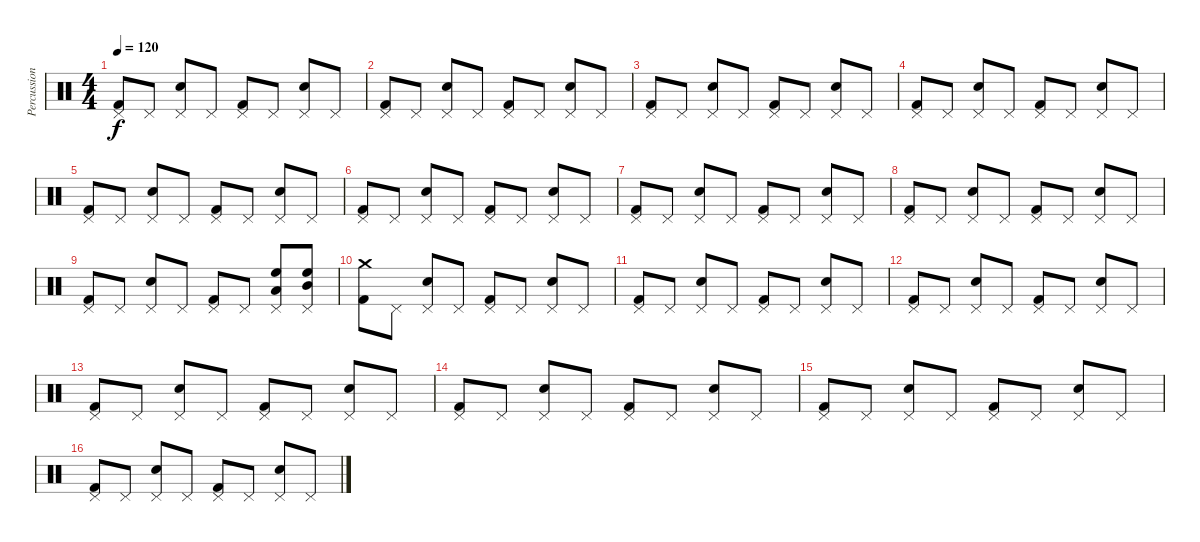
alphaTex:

\track ("Percussions" "Percussion") {instrument percussion}
\staff {score}
\articulation defaults
\ts (4 4)
\tempo 120
\clef neutral
\ks c
("Pedal Hi-Hat (hit)" "Kick (hit) 2").8{dy f} "Pedal Hi-Hat (hit)".8 ("Pedal Hi-Hat (hit)" "Snare (hit) 2").8 "Pedal Hi-Hat (hit)".8 ("Pedal Hi-Hat (hit)" "Kick (hit) 2").8 "Pedal Hi-Hat (hit)".8 ("Pedal Hi-Hat (hit)" "Snare (hit) 2").8 "Pedal Hi-Hat (hit)".8 |
("Pedal Hi-Hat (hit)" "Kick (hit) 2").8 "Pedal Hi-Hat (hit)".8 ("Pedal Hi-Hat (hit)" "Snare (hit) 2").8 "Pedal Hi-Hat (hit)".8 ("Pedal Hi-Hat (hit)" "Kick (hit) 2").8 "Pedal Hi-Hat (hit)".8 ("Pedal Hi-Hat (hit)" "Snare (hit) 2").8 "Pedal Hi-Hat (hit)".8 |
("Pedal Hi-Hat (hit)" "Kick (hit) 2").8 "Pedal Hi-Hat (hit)".8 ("Pedal Hi-Hat (hit)" "Snare (hit) 2").8 "Pedal Hi-Hat (hit)".8 ("Pedal Hi-Hat (hit)" "Kick (hit) 2").8 "Pedal Hi-Hat (hit)".8 ("Pedal Hi-Hat (hit)" "Snare (hit) 2").8 "Pedal Hi-Hat (hit)".8 |
("Pedal Hi-Hat (hit)" "Kick (hit) 2").8 "Pedal Hi-Hat (hit)".8 ("Pedal Hi-Hat (hit)" "Snare (hit) 2").8 "Pedal Hi-Hat (hit)".8 ("Pedal Hi-Hat (hit)" "Kick (hit) 2").8 "Pedal Hi-Hat (hit)".8 ("Pedal Hi-Hat (hit)" "Snare (hit) 2").8 "Pedal Hi-Hat (hit)".8 |
("Pedal Hi-Hat (hit)" "Kick (hit) 2").8 "Pedal Hi-Hat (hit)".8 ("Pedal Hi-Hat (hit)" "Snare (hit) 2").8 "Pedal Hi-Hat (hit)".8 ("Pedal Hi-Hat (hit)" "Kick (hit) 2").8 "Pedal Hi-Hat (hit)".8 ("Pedal Hi-Hat (hit)" "Snare (hit) 2").8 "Pedal Hi-Hat (hit)".8 |
("Pedal Hi-Hat (hit)" "Kick (hit) 2").8 "Pedal Hi-Hat (hit)".8 ("Pedal Hi-Hat (hit)" "Snare (hit) 2").8 "Pedal Hi-Hat (hit)".8 ("Pedal Hi-Hat (hit)" "Kick (hit) 2").8 "Pedal Hi-Hat (hit)".8 ("Pedal Hi-Hat (hit)" "Snare (hit) 2").8 "Pedal Hi-Hat (hit)".8 |
("Pedal Hi-Hat (hit)" "Kick (hit) 2").8 "Pedal Hi-Hat (hit)".8 ("Pedal Hi-Hat (hit)" "Snare (hit) 2").8 "Pedal Hi-Hat (hit)".8 ("Pedal Hi-Hat (hit)" "Kick (hit) 2").8 "Pedal Hi-Hat (hit)".8 ("Pedal Hi-Hat (hit)" "Snare (hit) 2").8 "Pedal Hi-Hat (hit)".8 |
("Pedal Hi-Hat (hit)" "Kick (hit) 2").8 "Pedal Hi-Hat (hit)".8 ("Pedal Hi-Hat (hit)" "Snare (hit) 2").8 "Pedal Hi-Hat (hit)".8 ("Pedal Hi-Hat (hit)" "Kick (hit) 2").8 "Pedal Hi-Hat (hit)".8 ("Pedal Hi-Hat (hit)" "Snare (hit) 2").8 "Pedal Hi-Hat (hit)".8 |
("Pedal Hi-Hat (hit)" "Kick (hit) 2").8 "Pedal Hi-Hat (hit)".8 ("Pedal Hi-Hat (hit)" "Snare (hit) 2").8 "Pedal Hi-Hat (hit)".8 ("Pedal Hi-Hat (hit)" "Kick (hit) 2").8 "Pedal Hi-Hat (hit)".8 ("Pedal Hi-Hat (hit)" "Low Tom (hit)" "High Floor Tom (hit)").8 ("Pedal Hi-Hat (hit)" "Mid Tom (hit)" "High Floor Tom (hit)").8 |
("Crash medium (hit)" "Kick (hit) 2").8 "Pedal Hi-Hat (hit)".8 ("Pedal Hi-Hat (hit)" "Snare (hit) 2").8 "Pedal Hi-Hat (hit)".8 ("Pedal Hi-Hat (hit)" "Kick (hit) 2").8 "Pedal Hi-Hat (hit)".8 ("Pedal Hi-Hat (hit)" "Snare (hit) 2").8 "Pedal Hi-Hat (hit)".8 |
("Pedal Hi-Hat (hit)" "Kick (hit) 2").8 "Pedal Hi-Hat (hit)".8 ("Pedal Hi-Hat (hit)" "Snare (hit) 2").8 "Pedal Hi-Hat (hit)".8 ("Pedal Hi-Hat (hit)" "Kick (hit) 2").8 "Pedal Hi-Hat (hit)".8 ("Pedal Hi-Hat (hit)" "Snare (hit) 2").8 "Pedal Hi-Hat (hit)".8 |
("Pedal Hi-Hat (hit)" "Kick (hit) 2").8 "Pedal Hi-Hat (hit)".8 ("Pedal Hi-Hat (hit)" "Snare (hit) 2").8 "Pedal Hi-Hat (hit)".8 ("Pedal Hi-Hat (hit)" "Kick (hit) 2").8 "Pedal Hi-Hat (hit)".8 ("Pedal Hi-Hat (hit)" "Snare (hit) 2").8 "Pedal Hi-Hat (hit)".8 |
("Pedal Hi-Hat (hit)" "Kick (hit) 2").8 "Pedal Hi-Hat (hit)".8 ("Pedal Hi-Hat (hit)" "Snare (hit) 2").8 "Pedal Hi-Hat (hit)".8 ("Pedal Hi-Hat (hit)" "Kick (hit) 2").8 "Pedal Hi-Hat (hit)".8 ("Pedal Hi-Hat (hit)" "Snare (hit) 2").8 "Pedal Hi-Hat (hit)".8 |
("Pedal Hi-Hat (hit)" "Kick (hit) 2").8 "Pedal Hi-Hat (hit)".8 ("Pedal Hi-Hat (hit)" "Snare (hit) 2").8 "Pedal Hi-Hat (hit)".8 ("Pedal Hi-Hat (hit)" "Kick (hit) 2").8 "Pedal Hi-Hat (hit)".8 ("Pedal Hi-Hat (hit)" "Snare (hit) 2").8 "Pedal Hi-Hat (hit)".8 |
("Pedal Hi-Hat (hit)" "Kick (hit) 2").8 "Pedal Hi-Hat (hit)".8 ("Pedal Hi-Hat (hit)" "Snare (hit) 2").8 "Pedal Hi-Hat (hit)".8 ("Pedal Hi-Hat (hit)" "Kick (hit) 2").8 "Pedal Hi-Hat (hit)".8 ("Pedal Hi-Hat (hit)" "Snare (hit) 2").8 "Pedal Hi-Hat (hit)".8 |
("Pedal Hi-Hat (hit)" "Kick (hit) 2").8 "Pedal Hi-Hat (hit)".8 ("Pedal Hi-Hat (hit)" "Snare (hit) 2").8 "Pedal Hi-Hat (hit)".8 ("Pedal Hi-Hat (hit)" "Kick (hit) 2").8 "Pedal Hi-Hat (hit)".8 ("Pedal Hi-Hat (hit)" "Snare (hit) 2").8 "Pedal Hi-Hat (hit)".8
